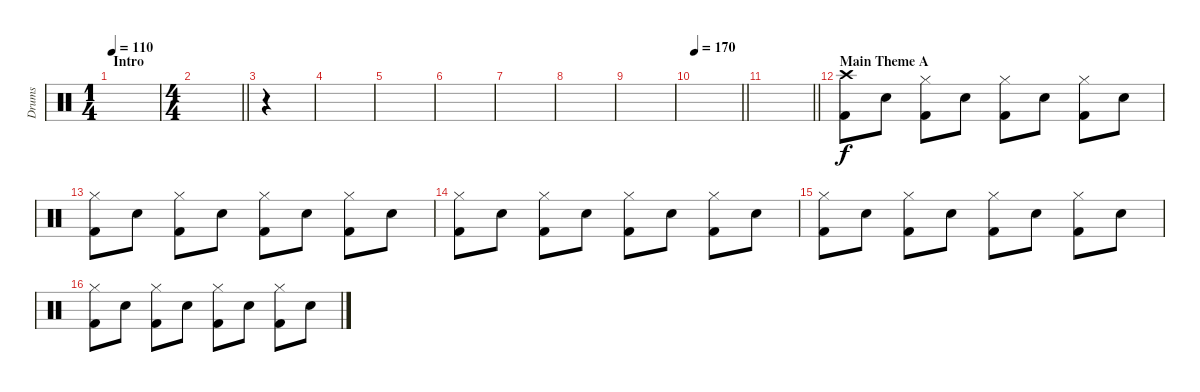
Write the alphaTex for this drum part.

\track ("Drums" "Drums") {instrument percussion}
\staff {score}
\articulation defaults
\ts (1 4)
\section ("" "Intro")
\tempo 110
\clef neutral
\ks c
|
\ts (4 4)
\barLineRight lightlight
|
\section ("" "")
r.4 |
|
|
|
|
|
|
\tempo 170
\barLineRight lightlight
|
\barLineRight lightlight
|
\section ("" "Main Theme A")
("Crash high (hit)" "Kick (hit) 2").8 "Electric Snare (hit)".8{volume 10} ("Hi-Hat (closed)" "Kick (hit) 2").8 "Electric Snare (hit)".8 ("Hi-Hat (closed)" "Kick (hit) 2").8 "Electric Snare (hit)".8 ("Hi-Hat (closed)" "Kick (hit) 2").8 "Electric Snare (hit)".8 |
("Hi-Hat (closed)" "Kick (hit) 2").8 "Electric Snare (hit)".8 ("Hi-Hat (closed)" "Kick (hit) 2").8 "Electric Snare (hit)".8 ("Hi-Hat (closed)" "Kick (hit) 2").8 "Electric Snare (hit)".8 ("Hi-Hat (closed)" "Kick (hit) 2").8 "Electric Snare (hit)".8 |
("Hi-Hat (closed)" "Kick (hit) 2").8 "Electric Snare (hit)".8 ("Hi-Hat (closed)" "Kick (hit) 2").8 "Electric Snare (hit)".8 ("Hi-Hat (closed)" "Kick (hit) 2").8 "Electric Snare (hit)".8 ("Hi-Hat (closed)" "Kick (hit) 2").8 "Electric Snare (hit)".8 |
("Hi-Hat (closed)" "Kick (hit) 2").8 "Electric Snare (hit)".8 ("Hi-Hat (closed)" "Kick (hit) 2").8 "Electric Snare (hit)".8 ("Hi-Hat (closed)" "Kick (hit) 2").8 "Electric Snare (hit)".8 ("Hi-Hat (closed)" "Kick (hit) 2").8 "Electric Snare (hit)".8 |
("Hi-Hat (closed)" "Kick (hit) 2").8 "Electric Snare (hit)".8 ("Hi-Hat (closed)" "Kick (hit) 2").8 "Electric Snare (hit)".8 ("Hi-Hat (closed)" "Kick (hit) 2").8 "Electric Snare (hit)".8 ("Hi-Hat (closed)" "Kick (hit) 2").8 "Electric Snare (hit)".8
